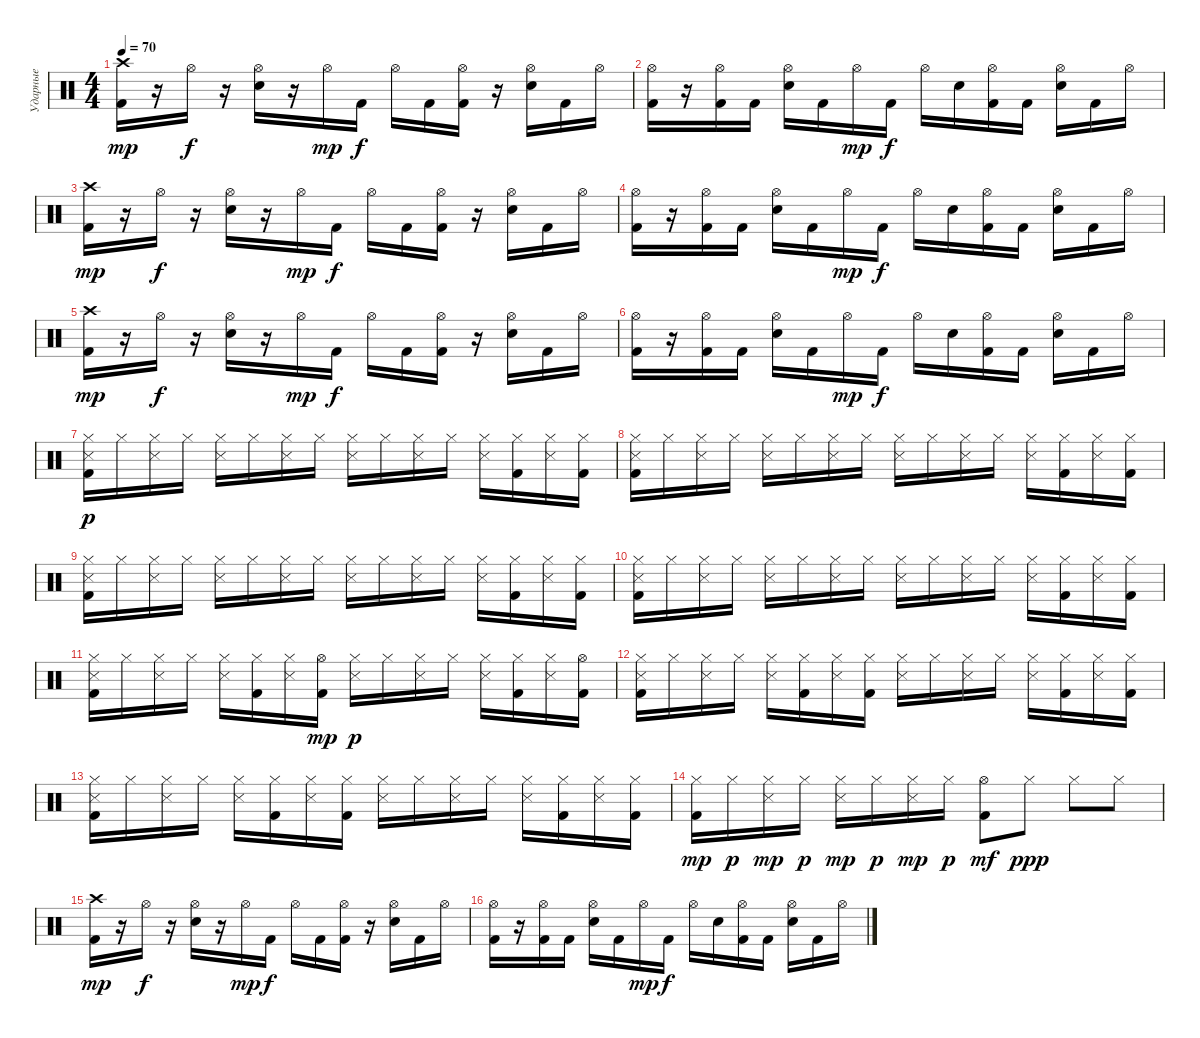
\track ("Ударные" "Ударные") {instrument percussion}
\staff {score}
\articulation defaults
\ts (4 4)
\tempo 70
\clef neutral
\ks c
("Crash high (hit)" "Kick (hit) 2").16{dy mp} r.16 "Hi-Hat (open)".16{dy f} r.16 ("Hi-Hat (open)" "Electric Snare (hit)").16 r.16 "Hi-Hat (open)".16{dy mp} "Kick (hit) 2".16{dy f} "Hi-Hat (open)".16 "Kick (hit) 2".16 ("Hi-Hat (open)" "Kick (hit) 2").16 r.16 ("Hi-Hat (open)" "Electric Snare (hit)").16 "Kick (hit) 2".16 "Hi-Hat (open)".16 |
("Hi-Hat (open)" "Kick (hit) 2").16 r.16 ("Hi-Hat (open)" "Kick (hit) 2").16 "Kick (hit) 2".16 ("Hi-Hat (open)" "Electric Snare (hit)").16 "Kick (hit) 2".16 "Hi-Hat (open)".16{dy mp} "Kick (hit) 2".16{dy f} "Hi-Hat (open)".16 "Electric Snare (hit)".16 ("Hi-Hat (open)" "Kick (hit) 2").16 "Kick (hit) 2".16 ("Hi-Hat (open)" "Electric Snare (hit)").16 "Kick (hit) 2".16 "Hi-Hat (open)".16 |
("Crash high (hit)" "Kick (hit) 2").16{dy mp} r.16 "Hi-Hat (open)".16{dy f} r.16 ("Hi-Hat (open)" "Electric Snare (hit)").16 r.16 "Hi-Hat (open)".16{dy mp} "Kick (hit) 2".16{dy f} "Hi-Hat (open)".16 "Kick (hit) 2".16 ("Hi-Hat (open)" "Kick (hit) 2").16 r.16 ("Hi-Hat (open)" "Electric Snare (hit)").16 "Kick (hit) 2".16 "Hi-Hat (open)".16 |
("Hi-Hat (open)" "Kick (hit) 2").16 r.16 ("Hi-Hat (open)" "Kick (hit) 2").16 "Kick (hit) 2".16 ("Hi-Hat (open)" "Electric Snare (hit)").16 "Kick (hit) 2".16 "Hi-Hat (open)".16{dy mp} "Kick (hit) 2".16{dy f} "Hi-Hat (open)".16 "Electric Snare (hit)".16 ("Hi-Hat (open)" "Kick (hit) 2").16 "Kick (hit) 2".16 ("Hi-Hat (open)" "Electric Snare (hit)").16 "Kick (hit) 2".16 "Hi-Hat (open)".16 |
("Crash high (hit)" "Kick (hit) 2").16{dy mp} r.16 "Hi-Hat (open)".16{dy f} r.16 ("Hi-Hat (open)" "Electric Snare (hit)").16 r.16 "Hi-Hat (open)".16{dy mp} "Kick (hit) 2".16{dy f} "Hi-Hat (open)".16 "Kick (hit) 2".16 ("Hi-Hat (open)" "Kick (hit) 2").16 r.16 ("Hi-Hat (open)" "Electric Snare (hit)").16 "Kick (hit) 2".16 "Hi-Hat (open)".16 |
("Hi-Hat (open)" "Kick (hit) 2").16 r.16 ("Hi-Hat (open)" "Kick (hit) 2").16 "Kick (hit) 2".16 ("Hi-Hat (open)" "Electric Snare (hit)").16 "Kick (hit) 2".16 "Hi-Hat (open)".16{dy mp} "Kick (hit) 2".16{dy f} "Hi-Hat (open)".16 "Electric Snare (hit)".16 ("Hi-Hat (open)" "Kick (hit) 2").16 "Kick (hit) 2".16 ("Hi-Hat (open)" "Electric Snare (hit)").16 "Kick (hit) 2".16 "Hi-Hat (open)".16 |
("Hi-Hat (closed)" "Snare (side stick) 3" "Kick (hit) 2").16{dy p} "Hi-Hat (closed)".16 ("Hi-Hat (closed)" "Snare (side stick) 3").16 "Hi-Hat (closed)".16 ("Hi-Hat (closed)" "Snare (side stick) 3").16 "Hi-Hat (closed)".16 ("Hi-Hat (closed)" "Snare (side stick) 3").16 "Hi-Hat (closed)".16 ("Hi-Hat (closed)" "Snare (side stick) 3").16 "Hi-Hat (closed)".16 ("Hi-Hat (closed)" "Snare (side stick) 3").16 "Hi-Hat (closed)".16 ("Hi-Hat (closed)" "Snare (side stick) 3").16 ("Hi-Hat (closed)" "Kick (hit) 2").16 ("Hi-Hat (closed)" "Snare (side stick) 3").16 ("Hi-Hat (closed)" "Kick (hit) 2").16 |
("Hi-Hat (closed)" "Snare (side stick) 3" "Kick (hit) 2").16 "Hi-Hat (closed)".16 ("Hi-Hat (closed)" "Snare (side stick) 3").16 "Hi-Hat (closed)".16 ("Hi-Hat (closed)" "Snare (side stick) 3").16 "Hi-Hat (closed)".16 ("Hi-Hat (closed)" "Snare (side stick) 3").16 "Hi-Hat (closed)".16 ("Hi-Hat (closed)" "Snare (side stick) 3").16 "Hi-Hat (closed)".16 ("Hi-Hat (closed)" "Snare (side stick) 3").16 "Hi-Hat (closed)".16 ("Hi-Hat (closed)" "Snare (side stick) 3").16 ("Hi-Hat (closed)" "Kick (hit) 2").16 ("Hi-Hat (closed)" "Snare (side stick) 3").16 ("Hi-Hat (closed)" "Kick (hit) 2").16 |
("Hi-Hat (closed)" "Snare (side stick) 3" "Kick (hit) 2").16 "Hi-Hat (closed)".16 ("Hi-Hat (closed)" "Snare (side stick) 3").16 "Hi-Hat (closed)".16 ("Hi-Hat (closed)" "Snare (side stick) 3").16 "Hi-Hat (closed)".16 ("Hi-Hat (closed)" "Snare (side stick) 3").16 "Hi-Hat (closed)".16 ("Hi-Hat (closed)" "Snare (side stick) 3").16 "Hi-Hat (closed)".16 ("Hi-Hat (closed)" "Snare (side stick) 3").16 "Hi-Hat (closed)".16 ("Hi-Hat (closed)" "Snare (side stick) 3").16 ("Hi-Hat (closed)" "Kick (hit) 2").16 ("Hi-Hat (closed)" "Snare (side stick) 3").16 ("Hi-Hat (closed)" "Kick (hit) 2").16 |
("Hi-Hat (closed)" "Snare (side stick) 3" "Kick (hit) 2").16 "Hi-Hat (closed)".16 ("Hi-Hat (closed)" "Snare (side stick) 3").16 "Hi-Hat (closed)".16 ("Hi-Hat (closed)" "Snare (side stick) 3").16 "Hi-Hat (closed)".16 ("Hi-Hat (closed)" "Snare (side stick) 3").16 "Hi-Hat (closed)".16 ("Hi-Hat (closed)" "Snare (side stick) 3").16 "Hi-Hat (closed)".16 ("Hi-Hat (closed)" "Snare (side stick) 3").16 "Hi-Hat (closed)".16 ("Hi-Hat (closed)" "Snare (side stick) 3").16 ("Hi-Hat (closed)" "Kick (hit) 2").16 ("Hi-Hat (closed)" "Snare (side stick) 3").16 ("Hi-Hat (closed)" "Kick (hit) 2").16 |
("Hi-Hat (closed)" "Snare (side stick) 3" "Kick (hit) 2").16 "Hi-Hat (closed)".16 ("Hi-Hat (closed)" "Snare (side stick) 3").16 "Hi-Hat (closed)".16 ("Hi-Hat (closed)" "Snare (side stick) 3").16 ("Hi-Hat (closed)" "Kick (hit) 2").16 ("Hi-Hat (closed)" "Snare (side stick) 3").16 ("Hi-Hat (open)" "Kick (hit) 2").16{dy mp} ("Hi-Hat (closed)" "Snare (side stick) 3").16{dy p} "Hi-Hat (closed)".16 ("Hi-Hat (closed)" "Snare (side stick) 3").16 "Hi-Hat (closed)".16 ("Hi-Hat (closed)" "Snare (side stick) 3").16 ("Hi-Hat (closed)" "Kick (hit) 2").16 ("Hi-Hat (closed)" "Snare (side stick) 3").16 ("Hi-Hat (open)" "Kick (hit) 2").16 |
("Hi-Hat (closed)" "Snare (side stick) 3" "Kick (hit) 2").16 "Hi-Hat (closed)".16 ("Hi-Hat (closed)" "Snare (side stick) 3").16 "Hi-Hat (closed)".16 ("Hi-Hat (closed)" "Snare (side stick) 3").16 ("Hi-Hat (closed)" "Kick (hit) 2").16 ("Hi-Hat (closed)" "Snare (side stick) 3").16 ("Hi-Hat (closed)" "Kick (hit) 2").16 ("Hi-Hat (closed)" "Snare (side stick) 3").16 "Hi-Hat (closed)".16 ("Hi-Hat (closed)" "Snare (side stick) 3").16 "Hi-Hat (closed)".16 ("Hi-Hat (closed)" "Snare (side stick) 3").16 ("Hi-Hat (closed)" "Kick (hit) 2").16 ("Hi-Hat (closed)" "Snare (side stick) 3").16 ("Hi-Hat (closed)" "Kick (hit) 2").16 |
("Hi-Hat (closed)" "Snare (side stick) 3" "Kick (hit) 2").16 "Hi-Hat (closed)".16 ("Hi-Hat (closed)" "Snare (side stick) 3").16 "Hi-Hat (closed)".16 ("Hi-Hat (closed)" "Snare (side stick) 3").16 ("Hi-Hat (closed)" "Kick (hit) 2").16 ("Hi-Hat (closed)" "Snare (side stick) 3").16 ("Hi-Hat (closed)" "Kick (hit) 2").16 ("Hi-Hat (closed)" "Snare (side stick) 3").16 "Hi-Hat (closed)".16 ("Hi-Hat (closed)" "Snare (side stick) 3").16 "Hi-Hat (closed)".16 ("Hi-Hat (closed)" "Snare (side stick) 3").16 ("Hi-Hat (closed)" "Kick (hit) 2").16 ("Hi-Hat (closed)" "Snare (side stick) 3").16 ("Hi-Hat (closed)" "Kick (hit) 2").16 |
("Hi-Hat (closed)" "Kick (hit) 2").16{dy mp} "Hi-Hat (closed)".16{dy p} ("Hi-Hat (closed)" "Snare (side stick) 3").16{dy mp} "Hi-Hat (closed)".16{dy p} ("Hi-Hat (closed)" "Snare (side stick) 3").16{dy mp} "Hi-Hat (closed)".16{dy p} ("Hi-Hat (closed)" "Snare (side stick) 3").16{dy mp} "Hi-Hat (closed)".16{dy p} ("Hi-Hat (open)" "Kick (hit) 2").8{dy mf} "Hi-Hat (closed)".8{dy ppp} "Hi-Hat (closed)".8 "Hi-Hat (closed)".8 |
("Crash high (hit)" "Kick (hit) 2").16{dy mp} r.16 "Hi-Hat (open)".16{dy f} r.16 ("Hi-Hat (open)" "Electric Snare (hit)").16 r.16 "Hi-Hat (open)".16{dy mp} "Kick (hit) 2".16{dy f} "Hi-Hat (open)".16 "Kick (hit) 2".16 ("Hi-Hat (open)" "Kick (hit) 2").16 r.16 ("Hi-Hat (open)" "Electric Snare (hit)").16 "Kick (hit) 2".16 "Hi-Hat (open)".16 |
("Hi-Hat (open)" "Kick (hit) 2").16 r.16 ("Hi-Hat (open)" "Kick (hit) 2").16 "Kick (hit) 2".16 ("Hi-Hat (open)" "Electric Snare (hit)").16 "Kick (hit) 2".16 "Hi-Hat (open)".16{dy mp} "Kick (hit) 2".16{dy f} "Hi-Hat (open)".16 "Electric Snare (hit)".16 ("Hi-Hat (open)" "Kick (hit) 2").16 "Kick (hit) 2".16 ("Hi-Hat (open)" "Electric Snare (hit)").16 "Kick (hit) 2".16 "Hi-Hat (open)".16
